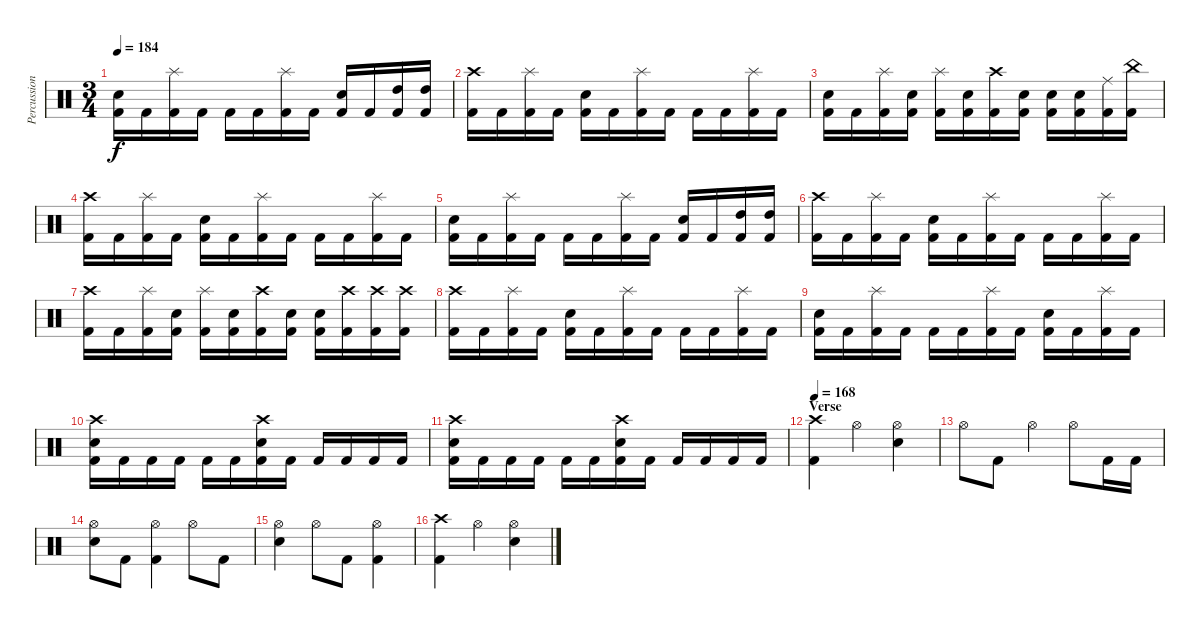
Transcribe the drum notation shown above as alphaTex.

\track ("Percussion" "Percussion") {instrument percussion}
\staff {score}
\articulation defaults
\ts (3 4)
\tempo 184
\clef neutral
\ks c
("Electric Snare (hit)" "Kick (hit) 2").16{dy f} "Kick (hit) 2".16 ("Splash (hit)" "Kick (hit) 2").16 "Kick (hit) 2".16 "Kick (hit) 2".16 "Kick (hit) 2".16 ("Splash (hit)" "Kick (hit) 2").16 "Kick (hit) 2".16 ("Electric Snare (hit)" "Kick (hit) 2").16 "Kick (hit) 2".16 ("High Tom (hit)" "Kick (hit) 2").16 ("High Tom (hit)" "Kick (hit) 2").16 |
("Crash high (hit)" "Kick (hit) 2").16 "Kick (hit) 2".16 ("Splash (hit)" "Kick (hit) 2").16 "Kick (hit) 2".16 ("Electric Snare (hit)" "Kick (hit) 2").16 "Kick (hit) 2".16 ("Splash (hit)" "Kick (hit) 2").16 "Kick (hit) 2".16 "Kick (hit) 2".16 "Kick (hit) 2".16 ("Splash (hit)" "Kick (hit) 2").16 "Kick (hit) 2".16 |
("Electric Snare (hit)" "Kick (hit) 2").16 "Kick (hit) 2".16 ("Splash (hit)" "Kick (hit) 2").16 ("Electric Snare (hit)" "Kick (hit) 2").16 ("Splash (hit)" "Kick (hit) 2").16 ("Electric Snare (hit)" "Kick (hit) 2").16 ("Crash high (hit)" "Kick (hit) 2").16 ("Electric Snare (hit)" "Kick (hit) 2").16 ("Electric Snare (hit)" "Kick (hit) 2").16 ("Electric Snare (hit)" "Kick (hit) 2").16 ("Ride (middle)" "Kick (hit) 2").16 ("China (hit)" "Kick (hit) 2").16 |
("Crash high (hit)" "Kick (hit) 2").16 "Kick (hit) 2".16 ("Splash (hit)" "Kick (hit) 2").16 "Kick (hit) 2".16 ("Electric Snare (hit)" "Kick (hit) 2").16 "Kick (hit) 2".16 ("Splash (hit)" "Kick (hit) 2").16 "Kick (hit) 2".16 "Kick (hit) 2".16 "Kick (hit) 2".16 ("Splash (hit)" "Kick (hit) 2").16 "Kick (hit) 2".16 |
("Electric Snare (hit)" "Kick (hit) 2").16 "Kick (hit) 2".16 ("Splash (hit)" "Kick (hit) 2").16 "Kick (hit) 2".16 "Kick (hit) 2".16 "Kick (hit) 2".16 ("Splash (hit)" "Kick (hit) 2").16 "Kick (hit) 2".16 ("Electric Snare (hit)" "Kick (hit) 2").16 "Kick (hit) 2".16 ("High Tom (hit)" "Kick (hit) 2").16 ("High Tom (hit)" "Kick (hit) 2").16 |
("Crash high (hit)" "Kick (hit) 2").16 "Kick (hit) 2".16 ("Splash (hit)" "Kick (hit) 2").16 "Kick (hit) 2".16 ("Electric Snare (hit)" "Kick (hit) 2").16 "Kick (hit) 2".16 ("Splash (hit)" "Kick (hit) 2").16 "Kick (hit) 2".16 "Kick (hit) 2".16 "Kick (hit) 2".16 ("Splash (hit)" "Kick (hit) 2").16 "Kick (hit) 2".16 |
("Crash high (hit)" "Kick (hit) 2").16 "Kick (hit) 2".16 ("Splash (hit)" "Kick (hit) 2").16 ("Electric Snare (hit)" "Kick (hit) 2").16 ("Splash (hit)" "Kick (hit) 2").16 ("Electric Snare (hit)" "Kick (hit) 2").16 ("Crash high (hit)" "Kick (hit) 2").16 ("Electric Snare (hit)" "Kick (hit) 2").16 ("Electric Snare (hit)" "Kick (hit) 2").16 ("Crash high (hit)" "Kick (hit) 2").16 ("Crash high (hit)" "Kick (hit) 2").16 ("Crash high (hit)" "Kick (hit) 2").16 |
("Crash high (hit)" "Kick (hit) 2").16 "Kick (hit) 2".16 ("Splash (hit)" "Kick (hit) 2").16 "Kick (hit) 2".16 ("Electric Snare (hit)" "Kick (hit) 2").16 "Kick (hit) 2".16 ("Splash (hit)" "Kick (hit) 2").16 "Kick (hit) 2".16 "Kick (hit) 2".16 "Kick (hit) 2".16 ("Splash (hit)" "Kick (hit) 2").16 "Kick (hit) 2".16 |
("Electric Snare (hit)" "Kick (hit) 2").16 "Kick (hit) 2".16 ("Splash (hit)" "Kick (hit) 2").16 "Kick (hit) 2".16 "Kick (hit) 2".16 "Kick (hit) 2".16 ("Splash (hit)" "Kick (hit) 2").16 "Kick (hit) 2".16 ("Electric Snare (hit)" "Kick (hit) 2").16 "Kick (hit) 2".16 ("Splash (hit)" "Kick (hit) 2").16 "Kick (hit) 2".16 |
("Crash high (hit)" "Electric Snare (hit)" "Kick (hit) 2").16 "Kick (hit) 2".16 "Kick (hit) 2".16 "Kick (hit) 2".16 "Kick (hit) 2".16 "Kick (hit) 2".16 ("Crash high (hit)" "Electric Snare (hit)" "Kick (hit) 2").16 "Kick (hit) 2".16 "Kick (hit) 2".16 "Kick (hit) 2".16 "Kick (hit) 2".16 "Kick (hit) 2".16 |
("Crash high (hit)" "Electric Snare (hit)" "Kick (hit) 2").16 "Kick (hit) 2".16 "Kick (hit) 2".16 "Kick (hit) 2".16 "Kick (hit) 2".16 "Kick (hit) 2".16 ("Crash high (hit)" "Electric Snare (hit)" "Kick (hit) 2").16 "Kick (hit) 2".16 "Kick (hit) 2".16 "Kick (hit) 2".16 "Kick (hit) 2".16 "Kick (hit) 2".16 |
\section ("" "Verse")
\tempo 168
("Crash high (hit)" "Kick (hit) 2").4 "Hi-Hat (open)".4 ("Hi-Hat (open)" "Electric Snare (hit)").4 |
"Hi-Hat (open)".8 "Kick (hit) 2".8 "Hi-Hat (open)".4 "Hi-Hat (open)".8 "Kick (hit) 2".16 "Kick (hit) 2".16 |
("Hi-Hat (open)" "Electric Snare (hit)").8 "Kick (hit) 2".8 ("Hi-Hat (open)" "Kick (hit) 2").4 "Hi-Hat (open)".8 "Kick (hit) 2".8 |
("Hi-Hat (open)" "Electric Snare (hit)").4 "Hi-Hat (open)".8 "Kick (hit) 2".8 ("Hi-Hat (open)" "Kick (hit) 2").4 |
("Crash high (hit)" "Kick (hit) 2").4 "Hi-Hat (open)".4 ("Hi-Hat (open)" "Electric Snare (hit)").4
